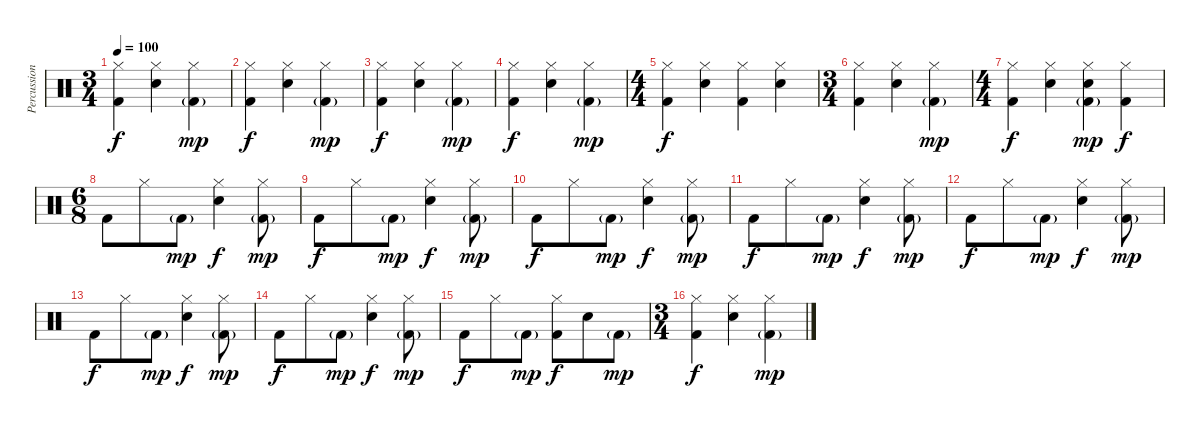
\track ("Percussion" "Percussion") {instrument percussion}
\staff {score}
\articulation defaults
\ts (3 4)
\tempo 100
\clef neutral
\ks c
("Hi-Hat (closed)" "Kick (hit) 2").4{dy f} ("Hi-Hat (closed)" "Snare (hit) 2").4 ("Hi-Hat (closed)" "Kick (hit) 2"{g}).4{dy mp} |
("Hi-Hat (closed)" "Kick (hit) 2").4{dy f} ("Hi-Hat (closed)" "Snare (hit) 2").4 ("Hi-Hat (closed)" "Kick (hit) 2"{g}).4{dy mp} |
("Hi-Hat (closed)" "Kick (hit) 2").4{dy f} ("Hi-Hat (closed)" "Snare (hit) 2").4 ("Hi-Hat (closed)" "Kick (hit) 2"{g}).4{dy mp} |
("Hi-Hat (closed)" "Kick (hit) 2").4{dy f} ("Hi-Hat (closed)" "Snare (hit) 2").4 ("Hi-Hat (closed)" "Kick (hit) 2"{g}).4{dy mp} |
\ts (4 4)
("Hi-Hat (closed)" "Kick (hit) 2").4{dy f} ("Hi-Hat (closed)" "Snare (hit) 2").4 ("Hi-Hat (closed)" "Kick (hit) 2").4 ("Hi-Hat (closed)" "Snare (hit) 2").4 |
\ts (3 4)
("Hi-Hat (closed)" "Kick (hit) 2").4 ("Hi-Hat (closed)" "Snare (hit) 2").4 ("Hi-Hat (closed)" "Kick (hit) 2"{g}).4{dy mp} |
\ts (4 4)
("Hi-Hat (closed)" "Kick (hit) 2").4{dy f} ("Hi-Hat (closed)" "Snare (hit) 2").4 ("Hi-Hat (closed)" "Snare (hit) 2" "Kick (hit) 2"{g}).4{dy mp} ("Hi-Hat (closed)" "Kick (hit) 2").4{dy f} |
\ts (6 8)
"Kick (hit) 2".8 "Hi-Hat (closed)".8 "Kick (hit) 2"{g}.8{dy mp} ("Hi-Hat (closed)" "Snare (hit) 2").4{dy f} ("Hi-Hat (closed)" "Kick (hit) 2"{g}).8{dy mp} |
"Kick (hit) 2".8{dy f} "Hi-Hat (closed)".8 "Kick (hit) 2"{g}.8{dy mp} ("Hi-Hat (closed)" "Snare (hit) 2").4{dy f} ("Hi-Hat (closed)" "Kick (hit) 2"{g}).8{dy mp} |
"Kick (hit) 2".8{dy f} "Hi-Hat (closed)".8 "Kick (hit) 2"{g}.8{dy mp} ("Hi-Hat (closed)" "Snare (hit) 2").4{dy f} ("Hi-Hat (closed)" "Kick (hit) 2"{g}).8{dy mp} |
"Kick (hit) 2".8{dy f} "Hi-Hat (closed)".8 "Kick (hit) 2"{g}.8{dy mp} ("Hi-Hat (closed)" "Snare (hit) 2").4{dy f} ("Hi-Hat (closed)" "Kick (hit) 2"{g}).8{dy mp} |
"Kick (hit) 2".8{dy f} "Hi-Hat (closed)".8 "Kick (hit) 2"{g}.8{dy mp} ("Hi-Hat (closed)" "Snare (hit) 2").4{dy f} ("Hi-Hat (closed)" "Kick (hit) 2"{g}).8{dy mp} |
"Kick (hit) 2".8{dy f} "Hi-Hat (closed)".8 "Kick (hit) 2"{g}.8{dy mp} ("Hi-Hat (closed)" "Snare (hit) 2").4{dy f} ("Hi-Hat (closed)" "Kick (hit) 2"{g}).8{dy mp} |
"Kick (hit) 2".8{dy f} "Hi-Hat (closed)".8 "Kick (hit) 2"{g}.8{dy mp} ("Hi-Hat (closed)" "Snare (hit) 2").4{dy f} ("Hi-Hat (closed)" "Kick (hit) 2"{g}).8{dy mp} |
"Kick (hit) 2".8{dy f} "Hi-Hat (closed)".8 "Kick (hit) 2"{g}.8{dy mp} ("Hi-Hat (closed)" "Kick (hit) 2").8{dy f} "Snare (hit) 2".8 "Kick (hit) 2"{g}.8{dy mp} |
\ts (3 4)
("Hi-Hat (closed)" "Kick (hit) 2").4{dy f} ("Hi-Hat (closed)" "Snare (hit) 2").4 ("Hi-Hat (closed)" "Kick (hit) 2"{g}).4{dy mp}
